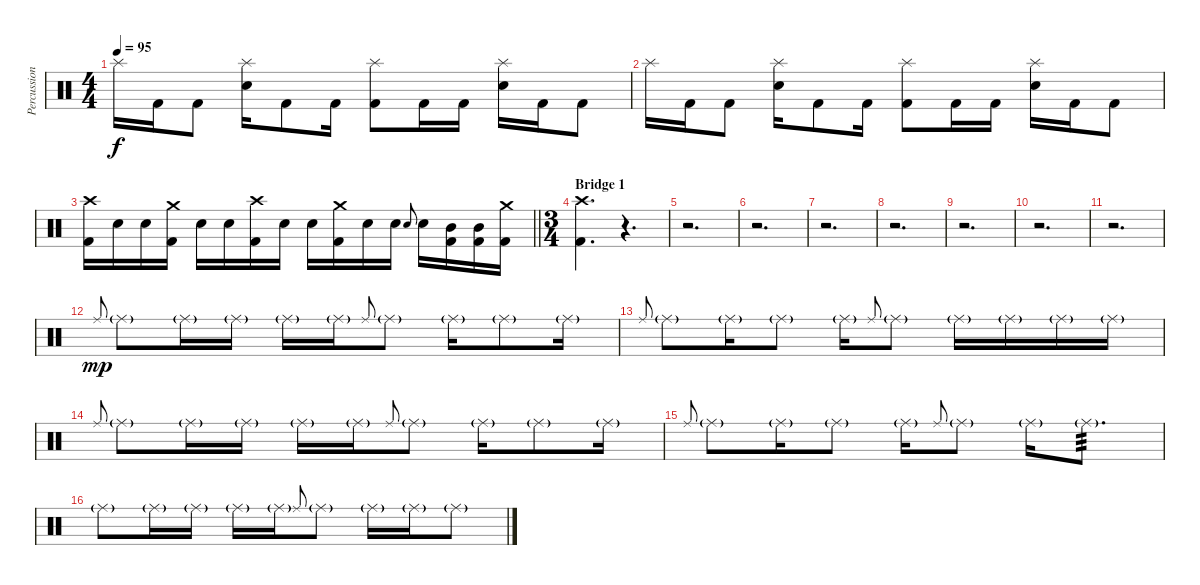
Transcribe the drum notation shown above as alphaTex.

\track ("Percussion Mike" "Percussion") {instrument percussion}
\staff {score}
\articulation defaults
\ts (4 4)
\tempo 95
\clef neutral
\ks c "Splash (hit)".16{dy f} "Kick (hit) 2".16 "Kick (hit) 2".8
("Splash (hit)" "Snare (hit) 2").16 "Kick (hit) 2".8 "Kick (hit) 2".16 ("Splash (hit)" "Kick (hit) 2").8 "Kick (hit) 2".16 "Kick (hit) 2".16 ("Splash (hit)" "Snare (hit) 2").16 "Kick (hit) 2".16 "Kick (hit) 2".8 |
"Splash (hit)".16 "Kick (hit) 2".16 "Kick (hit) 2".8 ("Splash (hit)" "Snare (hit) 2").16 "Kick (hit) 2".8 "Kick (hit) 2".16 ("Splash (hit)" "Kick (hit) 2").8 "Kick (hit) 2".16 "Kick (hit) 2".16 ("Splash (hit)" "Snare (hit) 2").16 "Kick (hit) 2".16 "Kick (hit) 2".8 |
\barLineRight lightlight
("Crash high (hit)" "Kick (hit) 2").16 "Snare (hit) 2".16 "Snare (hit) 2".16 ("Crash medium (hit)" "Kick (hit) 2").16 "Snare (hit) 2".16 "Snare (hit) 2".16 ("Crash high (hit)" "Kick (hit) 2").16 "Snare (hit) 2".16 "Snare (hit) 2".16 ("Crash medium (hit)" "Kick (hit) 2").16 "Snare (hit) 2".16 "Snare (hit) 2".16 "Snare (hit) 2".8{gr onbeat} "Snare (hit) 2".16 ("Mid Tom (hit)" "Kick (hit) 2").16 ("Mid Tom (hit)" "Kick (hit) 2").16 ("Crash medium (hit)" "Kick (hit) 2").16 |
\ts (3 4)
\section ("" "Bridge 1")
("Crash high (hit)" "Kick (hit) 2").4{d} r.4{d} |
r.2{d} |
r.2{d} |
r.2{d} |
r.2{d} |
r.2{d} |
r.2{d} |
r.2{d} |
"Ride (middle)".8{gr onbeat dy mp} "Ride (middle)"{g}.8 "Ride (middle)"{g}.16 "Ride (middle)"{g}.16 "Ride (middle)"{g}.16 "Ride (middle)"{g}.16 "Ride (middle)".8{gr onbeat} "Ride (middle)"{g}.8 "Ride (middle)"{g}.16 "Ride (middle)"{g}.8 "Ride (middle)"{g}.16 |
"Ride (middle)".8{gr onbeat} "Ride (middle)"{g}.8 "Ride (middle)"{g}.16 "Ride (middle)"{g}.8 "Ride (middle)"{g}.16 "Ride (middle)".8{gr onbeat} "Ride (middle)"{g}.8 "Ride (middle)"{g}.16 "Ride (middle)"{g}.16 "Ride (middle)"{g}.16 "Ride (middle)"{g}.16 |
"Ride (middle)".8{gr onbeat} "Ride (middle)"{g}.8 "Ride (middle)"{g}.16 "Ride (middle)"{g}.16 "Ride (middle)"{g}.16 "Ride (middle)"{g}.16 "Ride (middle)".8{gr onbeat} "Ride (middle)"{g}.8 "Ride (middle)"{g}.16 "Ride (middle)"{g}.8 "Ride (middle)"{g}.16 |
"Ride (middle)".8{gr onbeat} "Ride (middle)"{g}.8 "Ride (middle)"{g}.16 "Ride (middle)"{g}.8 "Ride (middle)"{g}.16 "Ride (middle)".8{gr onbeat} "Ride (middle)"{g}.8 "Ride (middle)"{g}.16 "Ride (middle)"{g}.8{d tp 3} |
"Ride (middle)"{g}.8 "Ride (middle)"{g}.16 "Ride (middle)"{g}.16 "Ride (middle)"{g}.16 "Ride (middle)"{g}.16 "Ride (middle)".8{gr onbeat} "Ride (middle)"{g}.8 "Ride (middle)"{g}.16 "Ride (middle)"{g}.16 "Ride (middle)"{g}.8
